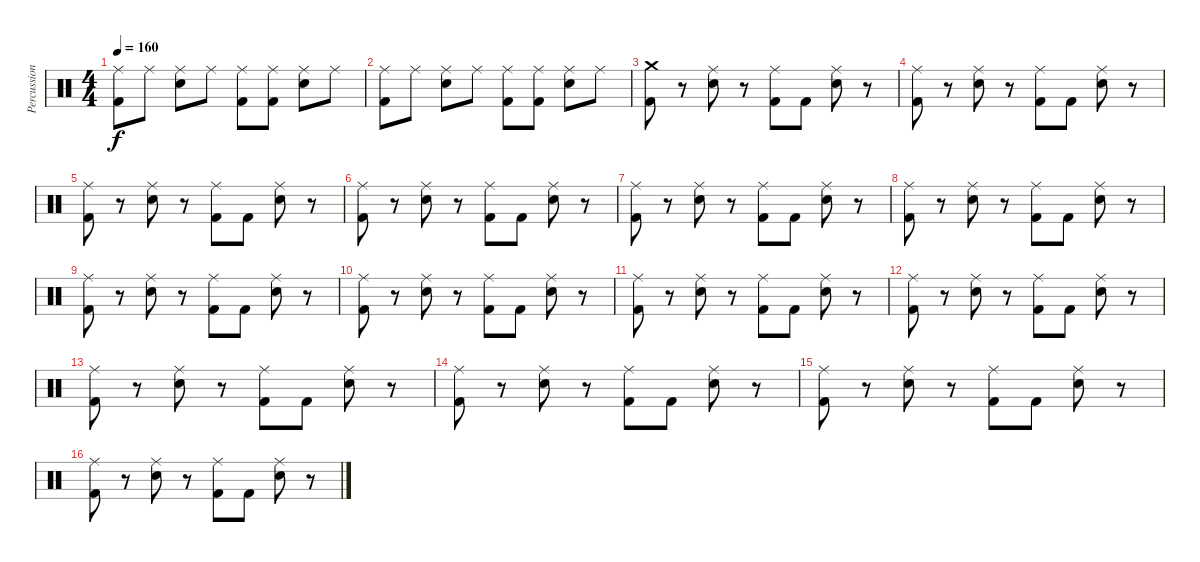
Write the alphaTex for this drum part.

\track ("Percussion" "Percussion") {instrument percussion}
\staff {score}
\articulation defaults
\ts (4 4)
\tempo 160
\clef neutral
\ks c
("Ride (middle)" "Kick (hit) 2").8{dy f} "Ride (middle)".8 ("Ride (middle)" "Electric Snare (hit)").8 "Ride (middle)".8 ("Ride (middle)" "Kick (hit) 2").8 ("Ride (middle)" "Kick (hit) 2").8 ("Ride (middle)" "Electric Snare (hit)").8 "Ride (middle)".8 |
("Ride (middle)" "Kick (hit) 2").8 "Ride (middle)".8 ("Ride (middle)" "Electric Snare (hit)").8 "Ride (middle)".8 ("Ride (middle)" "Kick (hit) 2").8 ("Ride (middle)" "Kick (hit) 2").8 ("Ride (middle)" "Electric Snare (hit)").8 "Ride (middle)".8 |
("Crash medium (hit)" "Kick (hit) 2").8 r.8 ("Ride (middle)" "Electric Snare (hit)").8 r.8 ("Ride (middle)" "Kick (hit) 2").8 "Kick (hit) 2".8 ("Ride (middle)" "Electric Snare (hit)").8 r.8 |
("Ride (middle)" "Kick (hit) 2").8 r.8 ("Ride (middle)" "Electric Snare (hit)").8 r.8 ("Ride (middle)" "Kick (hit) 2").8 "Kick (hit) 2".8 ("Ride (middle)" "Electric Snare (hit)").8 r.8 |
("Ride (middle)" "Kick (hit) 2").8 r.8 ("Ride (middle)" "Electric Snare (hit)").8 r.8 ("Ride (middle)" "Kick (hit) 2").8 "Kick (hit) 2".8 ("Ride (middle)" "Electric Snare (hit)").8 r.8 |
("Ride (middle)" "Kick (hit) 2").8 r.8 ("Ride (middle)" "Electric Snare (hit)").8 r.8 ("Ride (middle)" "Kick (hit) 2").8 "Kick (hit) 2".8 ("Ride (middle)" "Electric Snare (hit)").8 r.8 |
("Ride (middle)" "Kick (hit) 2").8 r.8 ("Ride (middle)" "Electric Snare (hit)").8 r.8 ("Ride (middle)" "Kick (hit) 2").8 "Kick (hit) 2".8 ("Ride (middle)" "Electric Snare (hit)").8 r.8 |
("Ride (middle)" "Kick (hit) 2").8 r.8 ("Ride (middle)" "Electric Snare (hit)").8 r.8 ("Ride (middle)" "Kick (hit) 2").8 "Kick (hit) 2".8 ("Ride (middle)" "Electric Snare (hit)").8 r.8 |
("Ride (middle)" "Kick (hit) 2").8 r.8 ("Ride (middle)" "Electric Snare (hit)").8 r.8 ("Ride (middle)" "Kick (hit) 2").8 "Kick (hit) 2".8 ("Ride (middle)" "Electric Snare (hit)").8 r.8 |
("Ride (middle)" "Kick (hit) 2").8 r.8 ("Ride (middle)" "Electric Snare (hit)").8 r.8 ("Ride (middle)" "Kick (hit) 2").8 "Kick (hit) 2".8 ("Ride (middle)" "Electric Snare (hit)").8 r.8 |
("Ride (middle)" "Kick (hit) 2").8 r.8 ("Ride (middle)" "Electric Snare (hit)").8 r.8 ("Ride (middle)" "Kick (hit) 2").8 "Kick (hit) 2".8 ("Ride (middle)" "Electric Snare (hit)").8 r.8 |
("Ride (middle)" "Kick (hit) 2").8 r.8 ("Ride (middle)" "Electric Snare (hit)").8 r.8 ("Ride (middle)" "Kick (hit) 2").8 "Kick (hit) 2".8 ("Ride (middle)" "Electric Snare (hit)").8 r.8 |
("Ride (middle)" "Kick (hit) 2").8 r.8 ("Ride (middle)" "Electric Snare (hit)").8 r.8 ("Ride (middle)" "Kick (hit) 2").8 "Kick (hit) 2".8 ("Ride (middle)" "Electric Snare (hit)").8 r.8 |
("Ride (middle)" "Kick (hit) 2").8 r.8 ("Ride (middle)" "Electric Snare (hit)").8 r.8 ("Ride (middle)" "Kick (hit) 2").8 "Kick (hit) 2".8 ("Ride (middle)" "Electric Snare (hit)").8 r.8 |
("Ride (middle)" "Kick (hit) 2").8 r.8 ("Ride (middle)" "Electric Snare (hit)").8 r.8 ("Ride (middle)" "Kick (hit) 2").8 "Kick (hit) 2".8 ("Ride (middle)" "Electric Snare (hit)").8 r.8 |
("Ride (middle)" "Kick (hit) 2").8 r.8 ("Ride (middle)" "Electric Snare (hit)").8 r.8 ("Ride (middle)" "Kick (hit) 2").8 "Kick (hit) 2".8 ("Ride (middle)" "Electric Snare (hit)").8 r.8
